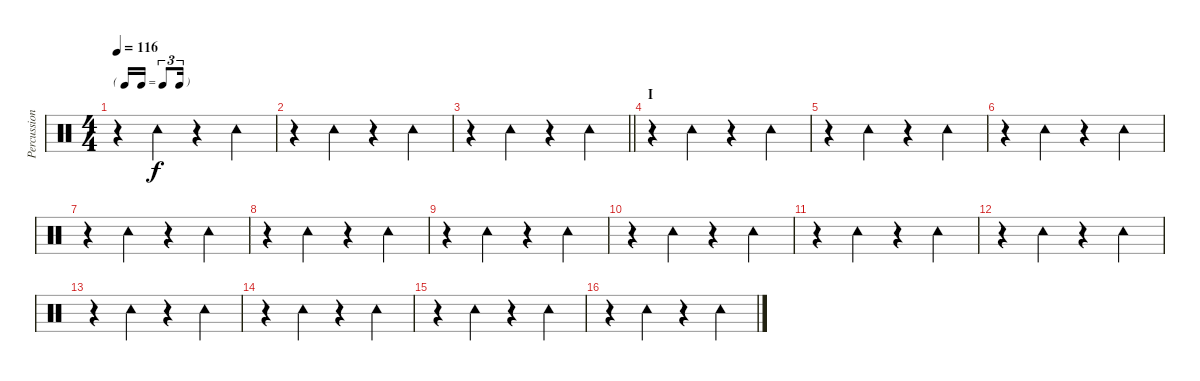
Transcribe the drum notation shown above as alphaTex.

\track ("Percussion" "Percussion") {instrument percussion}
\staff {score}
\articulation defaults
\ts (4 4)
\tf triplet16th
\tempo 116
\clef neutral
\ks c
r.4{dy f} "Tambourine (hit)".4 r.4 "Tambourine (hit)".4 |
r.4 "Tambourine (hit)".4 r.4 "Tambourine (hit)".4 |
\barLineRight lightlight
r.4 "Tambourine (hit)".4 r.4 "Tambourine (hit)".4 |
\section ("" "I")
r.4 "Tambourine (hit)".4 r.4 "Tambourine (hit)".4 |
r.4 "Tambourine (hit)".4 r.4 "Tambourine (hit)".4 |
r.4 "Tambourine (hit)".4 r.4 "Tambourine (hit)".4 |
r.4 "Tambourine (hit)".4 r.4 "Tambourine (hit)".4 |
r.4 "Tambourine (hit)".4 r.4 "Tambourine (hit)".4 |
r.4 "Tambourine (hit)".4 r.4 "Tambourine (hit)".4 |
r.4 "Tambourine (hit)".4 r.4 "Tambourine (hit)".4 |
r.4 "Tambourine (hit)".4 r.4 "Tambourine (hit)".4 |
r.4 "Tambourine (hit)".4 r.4 "Tambourine (hit)".4 |
r.4 "Tambourine (hit)".4 r.4 "Tambourine (hit)".4 |
r.4 "Tambourine (hit)".4 r.4 "Tambourine (hit)".4 |
r.4 "Tambourine (hit)".4 r.4 "Tambourine (hit)".4 |
r.4 "Tambourine (hit)".4 r.4 "Tambourine (hit)".4
